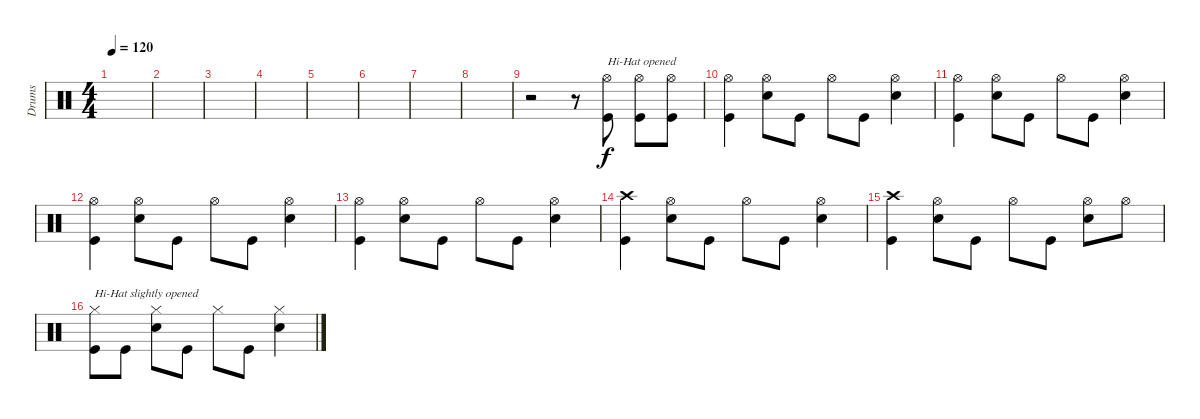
\track ("Drums" "Drums") {instrument percussion}
\staff {score}
\articulation defaults
\ts (4 4)
\tempo 120
\clef neutral
\ks c
|
|
|
|
|
|
|
|
r.2 r.8 ("Hi-Hat (open)" "Kick (hit)").8{txt "Hi-Hat opened"} ("Hi-Hat (open)" "Kick (hit)").8 ("Hi-Hat (open)" "Kick (hit)").8 |
("Hi-Hat (open)" "Kick (hit)").4 ("Hi-Hat (open)" "Snare (hit) 2").8 "Kick (hit)".8 "Hi-Hat (open)".8 "Kick (hit)".8 ("Hi-Hat (open)" "Snare (hit) 2").4 |
("Hi-Hat (open)" "Kick (hit)").4 ("Hi-Hat (open)" "Snare (hit) 2").8 "Kick (hit)".8 "Hi-Hat (open)".8 "Kick (hit)".8 ("Hi-Hat (open)" "Snare (hit) 2").4 |
("Hi-Hat (open)" "Kick (hit)").4 ("Hi-Hat (open)" "Snare (hit) 2").8 "Kick (hit)".8 "Hi-Hat (open)".8 "Kick (hit)".8 ("Hi-Hat (open)" "Snare (hit) 2").4 |
("Hi-Hat (open)" "Kick (hit)").4 ("Hi-Hat (open)" "Snare (hit) 2").8 "Kick (hit)".8 "Hi-Hat (open)".8 "Kick (hit)".8 ("Hi-Hat (open)" "Snare (hit) 2").4 |
("Crash high (hit)" "Kick (hit)").4 ("Hi-Hat (open)" "Snare (hit) 2").8 "Kick (hit)".8 "Hi-Hat (open)".8 "Kick (hit)".8 ("Hi-Hat (open)" "Snare (hit) 2").4 |
("Crash high (hit)" "Kick (hit)").4 ("Hi-Hat (open)" "Snare (hit) 2").8 "Kick (hit)".8 "Hi-Hat (open)".8 "Kick (hit)".8 ("Hi-Hat (open)" "Snare (hit) 2").8 "Hi-Hat (open)".8 |
("Hi-Hat (closed)" "Kick (hit)").8{txt "Hi-Hat slightly opened"} "Kick (hit)".8 ("Hi-Hat (closed)" "Snare (hit) 2").8 "Kick (hit)".8 "Hi-Hat (closed)".8 "Kick (hit)".8 ("Hi-Hat (closed)" "Snare (hit) 2").4
